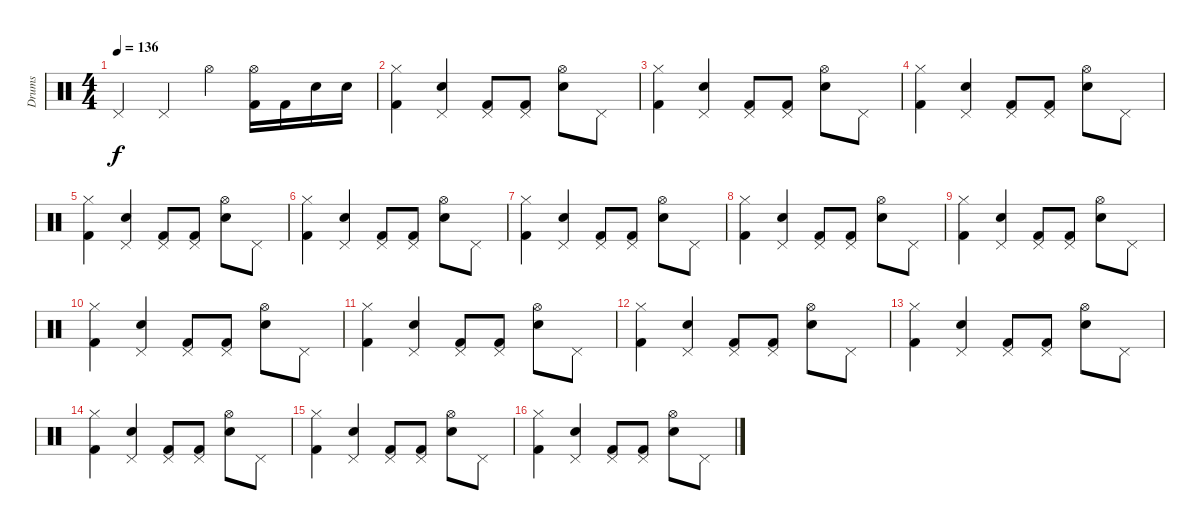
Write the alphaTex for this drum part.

\track ("Drums" "Drums") {instrument percussion}
\staff {score}
\articulation defaults
\ts (4 4)
\tempo 136
\clef neutral
\ks c "Pedal Hi-Hat (hit)".4{dy f} "Pedal Hi-Hat (hit)".4 "Hi-Hat (open)".4
("Hi-Hat (open)" "Kick (hit) 2").16 "Kick (hit) 2".16 "Snare (hit) 2".16 "Electric Snare (hit)".16 |
("Hi-Hat (closed)" "Kick (hit) 2").4 ("Snare (hit) 2" "Pedal Hi-Hat (hit)").4 ("Pedal Hi-Hat (hit)" "Kick (hit) 2").8 ("Pedal Hi-Hat (hit)" "Kick (hit) 2").8 ("Snare (hit) 2" "Hi-Hat (open)").8 "Pedal Hi-Hat (hit)".8 |
("Hi-Hat (closed)" "Kick (hit) 2").4 ("Snare (hit) 2" "Pedal Hi-Hat (hit)").4 ("Pedal Hi-Hat (hit)" "Kick (hit) 2").8 ("Pedal Hi-Hat (hit)" "Kick (hit) 2").8 ("Snare (hit) 2" "Hi-Hat (open)").8 "Pedal Hi-Hat (hit)".8 |
("Hi-Hat (closed)" "Kick (hit) 2").4 ("Snare (hit) 2" "Pedal Hi-Hat (hit)").4 ("Pedal Hi-Hat (hit)" "Kick (hit) 2").8 ("Pedal Hi-Hat (hit)" "Kick (hit) 2").8 ("Snare (hit) 2" "Hi-Hat (open)").8 "Pedal Hi-Hat (hit)".8 |
("Hi-Hat (closed)" "Kick (hit) 2").4 ("Snare (hit) 2" "Pedal Hi-Hat (hit)").4 ("Pedal Hi-Hat (hit)" "Kick (hit) 2").8 ("Pedal Hi-Hat (hit)" "Kick (hit) 2").8 ("Snare (hit) 2" "Hi-Hat (open)").8 "Pedal Hi-Hat (hit)".8 |
("Hi-Hat (closed)" "Kick (hit) 2").4 ("Snare (hit) 2" "Pedal Hi-Hat (hit)").4 ("Pedal Hi-Hat (hit)" "Kick (hit) 2").8 ("Pedal Hi-Hat (hit)" "Kick (hit) 2").8 ("Snare (hit) 2" "Hi-Hat (open)").8 "Pedal Hi-Hat (hit)".8 |
("Hi-Hat (closed)" "Kick (hit) 2").4 ("Snare (hit) 2" "Pedal Hi-Hat (hit)").4 ("Pedal Hi-Hat (hit)" "Kick (hit) 2").8 ("Pedal Hi-Hat (hit)" "Kick (hit) 2").8 ("Snare (hit) 2" "Hi-Hat (open)").8 "Pedal Hi-Hat (hit)".8 |
("Hi-Hat (closed)" "Kick (hit) 2").4 ("Snare (hit) 2" "Pedal Hi-Hat (hit)").4 ("Pedal Hi-Hat (hit)" "Kick (hit) 2").8 ("Pedal Hi-Hat (hit)" "Kick (hit) 2").8 ("Snare (hit) 2" "Hi-Hat (open)").8 "Pedal Hi-Hat (hit)".8 |
("Hi-Hat (closed)" "Kick (hit) 2").4 ("Snare (hit) 2" "Pedal Hi-Hat (hit)").4 ("Pedal Hi-Hat (hit)" "Kick (hit) 2").8 ("Pedal Hi-Hat (hit)" "Kick (hit) 2").8 ("Snare (hit) 2" "Hi-Hat (open)").8 "Pedal Hi-Hat (hit)".8 |
("Hi-Hat (closed)" "Kick (hit) 2").4 ("Snare (hit) 2" "Pedal Hi-Hat (hit)").4 ("Pedal Hi-Hat (hit)" "Kick (hit) 2").8 ("Pedal Hi-Hat (hit)" "Kick (hit) 2").8 ("Snare (hit) 2" "Hi-Hat (open)").8 "Pedal Hi-Hat (hit)".8 |
("Hi-Hat (closed)" "Kick (hit) 2").4 ("Snare (hit) 2" "Pedal Hi-Hat (hit)").4 ("Pedal Hi-Hat (hit)" "Kick (hit) 2").8 ("Pedal Hi-Hat (hit)" "Kick (hit) 2").8 ("Snare (hit) 2" "Hi-Hat (open)").8 "Pedal Hi-Hat (hit)".8 |
("Hi-Hat (closed)" "Kick (hit) 2").4 ("Snare (hit) 2" "Pedal Hi-Hat (hit)").4 ("Pedal Hi-Hat (hit)" "Kick (hit) 2").8 ("Pedal Hi-Hat (hit)" "Kick (hit) 2").8 ("Snare (hit) 2" "Hi-Hat (open)").8 "Pedal Hi-Hat (hit)".8 |
("Hi-Hat (closed)" "Kick (hit) 2").4 ("Snare (hit) 2" "Pedal Hi-Hat (hit)").4 ("Pedal Hi-Hat (hit)" "Kick (hit) 2").8 ("Pedal Hi-Hat (hit)" "Kick (hit) 2").8 ("Snare (hit) 2" "Hi-Hat (open)").8 "Pedal Hi-Hat (hit)".8 |
("Hi-Hat (closed)" "Kick (hit) 2").4 ("Snare (hit) 2" "Pedal Hi-Hat (hit)").4 ("Pedal Hi-Hat (hit)" "Kick (hit) 2").8 ("Pedal Hi-Hat (hit)" "Kick (hit) 2").8 ("Snare (hit) 2" "Hi-Hat (open)").8 "Pedal Hi-Hat (hit)".8 |
("Hi-Hat (closed)" "Kick (hit) 2").4 ("Snare (hit) 2" "Pedal Hi-Hat (hit)").4 ("Pedal Hi-Hat (hit)" "Kick (hit) 2").8 ("Pedal Hi-Hat (hit)" "Kick (hit) 2").8 ("Snare (hit) 2" "Hi-Hat (open)").8 "Pedal Hi-Hat (hit)".8 |
("Hi-Hat (closed)" "Kick (hit) 2").4 ("Snare (hit) 2" "Pedal Hi-Hat (hit)").4 ("Pedal Hi-Hat (hit)" "Kick (hit) 2").8 ("Pedal Hi-Hat (hit)" "Kick (hit) 2").8 ("Snare (hit) 2" "Hi-Hat (open)").8 "Pedal Hi-Hat (hit)".8
